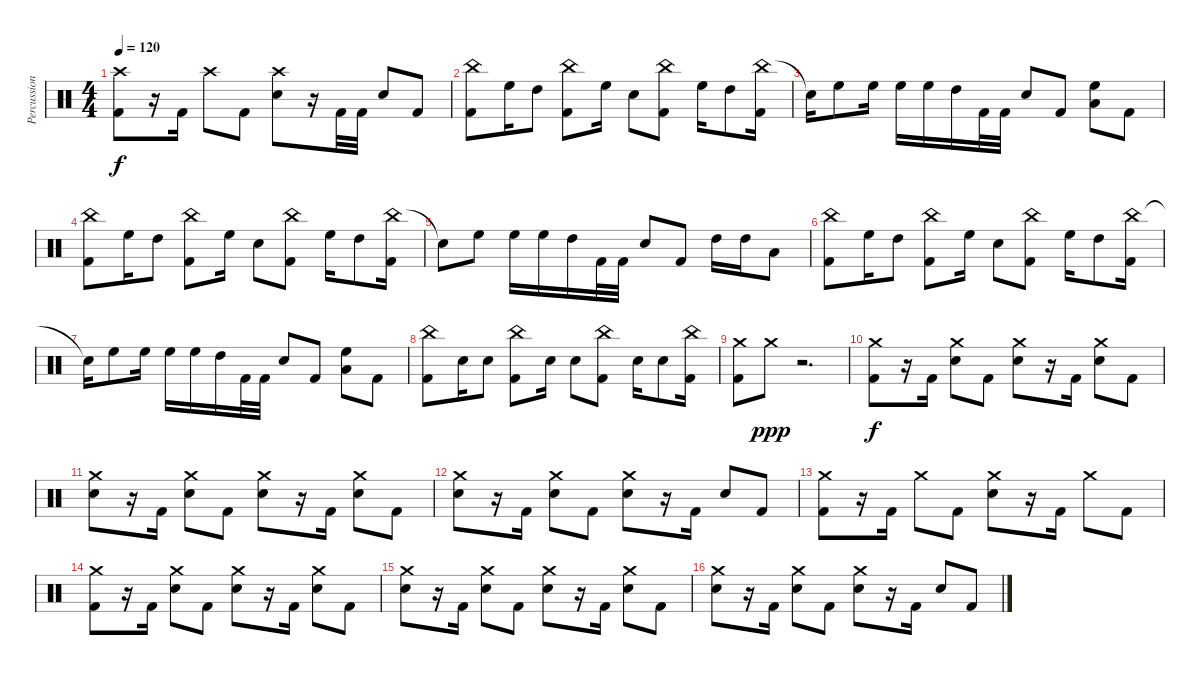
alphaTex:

\track ("Percussion" "Percussion") {instrument percussion}
\staff {score}
\articulation defaults
\ts (4 4)
\tempo 120
\clef neutral
\ks c
("Crash high (hit)" "Kick (hit) 2").8{dy f} r.16 "Kick (hit) 2".16 "Crash high (hit)".8 "Kick (hit) 2".8 ("Crash high (hit)" "Electric Snare (hit)").8 r.16 "Kick (hit) 2".32 "Kick (hit) 2".32 "Electric Snare (hit)".8 "Kick (hit) 2".8 |
("China (hit)" "Kick (hit) 2").8 "High Floor Tom (hit)".16 "High Tom (hit)".8 ("China (hit)" "Kick (hit) 2").8 "High Floor Tom (hit)".16 "Electric Snare (hit)".8 ("China (hit)" "Kick (hit) 2").8 "High Floor Tom (hit)".16 "High Tom (hit)".8 ("China (hit)" "Kick (hit) 2").16 |
"Snare (hit)"{t}.16 "High Floor Tom (hit)".8 "High Floor Tom (hit)".16 "High Floor Tom (hit)".16 "High Floor Tom (hit)".16 "High Tom (hit)".16 "Kick (hit) 2".32 "Kick (hit) 2".32 "Electric Snare (hit)".8 "Kick (hit) 2".8 ("High Floor Tom (hit)" "Low Floor Tom (hit)").8 "Kick (hit) 2".8 |
("China (hit)" "Kick (hit) 2").8 "High Floor Tom (hit)".16 "High Tom (hit)".8 ("China (hit)" "Kick (hit) 2").8 "High Floor Tom (hit)".16 "Electric Snare (hit)".8 ("China (hit)" "Kick (hit) 2").8 "High Floor Tom (hit)".16 "High Tom (hit)".8 ("China (hit)" "Kick (hit) 2").16 |
"Snare (hit)"{t}.8 "High Floor Tom (hit)".8 "High Floor Tom (hit)".16 "High Floor Tom (hit)".16 "High Tom (hit)".16 "Kick (hit) 2".32 "Kick (hit) 2".32 "Electric Snare (hit)".8 "Kick (hit) 2".8 "High Tom (hit)".16 "High Tom (hit)".16 "Low Floor Tom (hit)".8 |
("China (hit)" "Kick (hit) 2").8 "High Floor Tom (hit)".16 "High Tom (hit)".8 ("China (hit)" "Kick (hit) 2").8 "High Floor Tom (hit)".16 "Electric Snare (hit)".8 ("China (hit)" "Kick (hit) 2").8 "High Floor Tom (hit)".16 "High Tom (hit)".8 ("China (hit)" "Kick (hit) 2").16 |
"Snare (hit)"{t}.16 "High Floor Tom (hit)".8 "High Floor Tom (hit)".16 "High Floor Tom (hit)".16 "High Floor Tom (hit)".16 "High Tom (hit)".16 "Kick (hit) 2".32 "Kick (hit) 2".32 "Electric Snare (hit)".8 "Kick (hit) 2".8 ("High Floor Tom (hit)" "Low Floor Tom (hit)").8 "Kick (hit) 2".8 |
("China (hit)" "Kick (hit) 2").8 "Electric Snare (hit)".16 "Electric Snare (hit)".8 ("China (hit)" "Kick (hit) 2").8 "Electric Snare (hit)".16 "Electric Snare (hit)".8 ("China (hit)" "Kick (hit) 2").8 "Electric Snare (hit)".16 "Electric Snare (hit)".8 ("China (hit)" "Kick (hit) 2").16 |
("Crash medium (hit)" "Kick (hit) 2").8 "Crash medium (hit)".8{dy ppp} r.2{d} |
("Crash medium (hit)" "Kick (hit) 2").8{dy f} r.16 "Kick (hit) 2".16 ("Crash medium (hit)" "Electric Snare (hit)").8 "Kick (hit) 2".8 ("Crash medium (hit)" "Electric Snare (hit)").8 r.16 "Kick (hit) 2".16 ("Crash medium (hit)" "Electric Snare (hit)").8 "Kick (hit) 2".8 |
("Crash medium (hit)" "Electric Snare (hit)").8 r.16 "Kick (hit) 2".16 ("Crash medium (hit)" "Electric Snare (hit)").8 "Kick (hit) 2".8 ("Crash medium (hit)" "Electric Snare (hit)").8 r.16 "Kick (hit) 2".16 ("Crash medium (hit)" "Electric Snare (hit)").8 "Kick (hit) 2".8 |
("Crash medium (hit)" "Electric Snare (hit)").8 r.16 "Kick (hit) 2".16 ("Crash medium (hit)" "Electric Snare (hit)").8 "Kick (hit) 2".8 ("Crash medium (hit)" "Electric Snare (hit)").8 r.16 "Kick (hit) 2".16 "Electric Snare (hit)".8 "Kick (hit) 2".8 |
("Crash medium (hit)" "Kick (hit) 2").8 r.16 "Kick (hit) 2".16 "Crash medium (hit)".8 "Kick (hit) 2".8 ("Crash medium (hit)" "Electric Snare (hit)").8 r.16 "Kick (hit) 2".16 "Crash medium (hit)".8 "Kick (hit) 2".8 |
("Crash medium (hit)" "Kick (hit) 2").8 r.16 "Kick (hit) 2".16 ("Crash medium (hit)" "Electric Snare (hit)").8 "Kick (hit) 2".8 ("Crash medium (hit)" "Electric Snare (hit)").8 r.16 "Kick (hit) 2".16 ("Crash medium (hit)" "Electric Snare (hit)").8 "Kick (hit) 2".8 |
("Crash medium (hit)" "Electric Snare (hit)").8 r.16 "Kick (hit) 2".16 ("Crash medium (hit)" "Electric Snare (hit)").8 "Kick (hit) 2".8 ("Crash medium (hit)" "Electric Snare (hit)").8 r.16 "Kick (hit) 2".16 ("Crash medium (hit)" "Electric Snare (hit)").8 "Kick (hit) 2".8 |
("Crash medium (hit)" "Electric Snare (hit)").8 r.16 "Kick (hit) 2".16 ("Crash medium (hit)" "Electric Snare (hit)").8 "Kick (hit) 2".8 ("Crash medium (hit)" "Electric Snare (hit)").8 r.16 "Kick (hit) 2".16 "Electric Snare (hit)".8 "Kick (hit) 2".8
